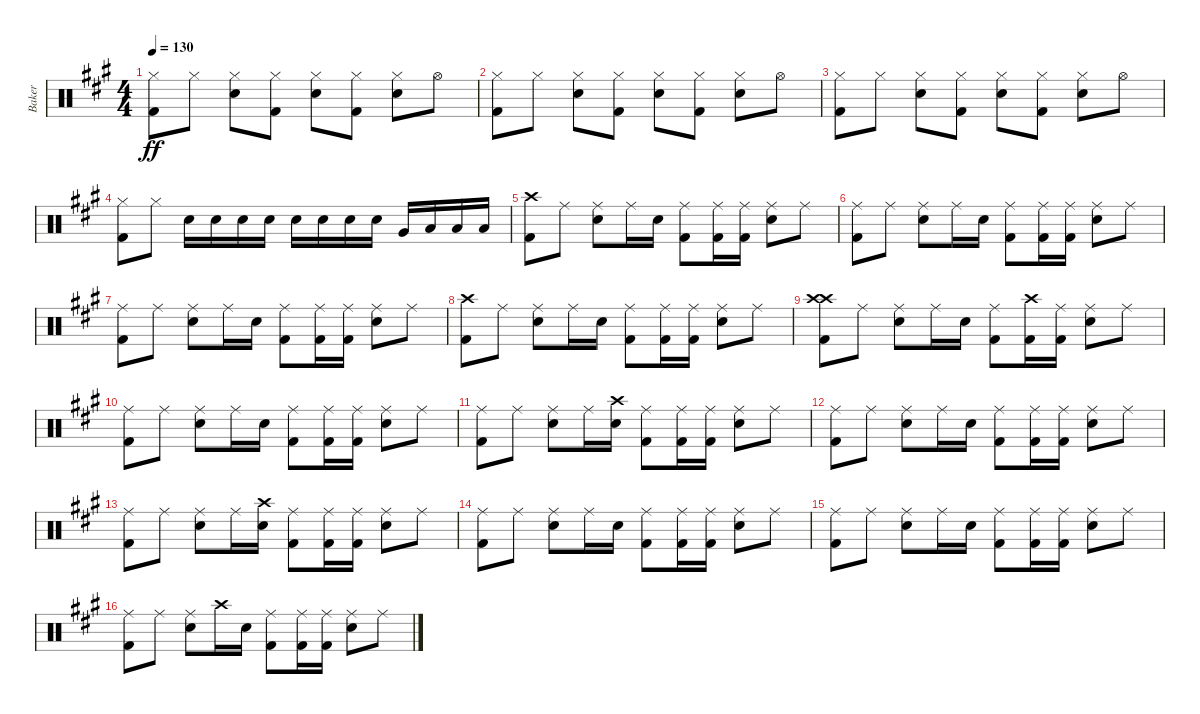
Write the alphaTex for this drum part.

\track ("Baker" "Baker") {instrument percussion}
\staff {score}
\articulation defaults
\ts (4 4)
\tempo 130
\clef neutral
\ks a
("Hi-Hat (closed)" "Kick (hit) 2").8{dy ff} "Hi-Hat (closed)".8 ("Hi-Hat (closed)" "Snare (hit) 2").8 ("Hi-Hat (closed)" "Kick (hit) 2").8 ("Hi-Hat (closed)" "Snare (hit) 2").8 ("Hi-Hat (closed)" "Kick (hit) 2").8 ("Hi-Hat (closed)" "Snare (hit) 2").8 "Hi-Hat (open)".8 |
("Hi-Hat (closed)" "Kick (hit) 2").8 "Hi-Hat (closed)".8 ("Hi-Hat (closed)" "Snare (hit) 2").8 ("Hi-Hat (closed)" "Kick (hit) 2").8 ("Hi-Hat (closed)" "Snare (hit) 2").8 ("Hi-Hat (closed)" "Kick (hit) 2").8 ("Hi-Hat (closed)" "Snare (hit) 2").8 "Hi-Hat (open)".8 |
("Hi-Hat (closed)" "Kick (hit) 2").8 "Hi-Hat (closed)".8 ("Hi-Hat (closed)" "Snare (hit) 2").8 ("Hi-Hat (closed)" "Kick (hit) 2").8 ("Hi-Hat (closed)" "Snare (hit) 2").8 ("Hi-Hat (closed)" "Kick (hit) 2").8 ("Hi-Hat (closed)" "Snare (hit) 2").8 "Hi-Hat (open)".8 |
("Hi-Hat (closed)" "Kick (hit) 2").8 "Hi-Hat (closed)".8 "Snare (hit) 2".16 "Snare (hit) 2".16 "Snare (hit) 2".16 "Snare (hit) 2".16 "Snare (hit) 2".16 "Snare (hit) 2".16 "Snare (hit) 2".16 "Snare (hit) 2".16 "Very Low Tom (hit)".16 "Low Floor Tom (hit)".16 "Low Floor Tom (hit)".16 "Low Floor Tom (hit)".16 |
("Crash high (hit)" "Kick (hit) 2").8 "Ride (middle)".8 ("Ride (middle)" "Snare (hit) 2").8 "Ride (middle)".16 "Snare (hit) 2".16 ("Ride (middle)" "Kick (hit) 2").8 ("Ride (middle)" "Kick (hit) 2").16 ("Ride (middle)" "Kick (hit) 2").16 ("Ride (middle)" "Snare (hit) 2").8 "Ride (middle)".8 |
("Ride (middle)" "Kick (hit) 2").8 "Ride (middle)".8 ("Ride (middle)" "Snare (hit) 2").8 "Ride (middle)".16 "Snare (hit) 2".16 ("Ride (middle)" "Kick (hit) 2").8 ("Ride (middle)" "Kick (hit) 2").16 ("Ride (middle)" "Kick (hit) 2").16 ("Ride (middle)" "Snare (hit) 2").8 "Ride (middle)".8 |
("Ride (middle)" "Kick (hit) 2").8 "Ride (middle)".8 ("Ride (middle)" "Snare (hit) 2").8 "Ride (middle)".16 "Snare (hit) 2".16 ("Ride (middle)" "Kick (hit) 2").8 ("Ride (middle)" "Kick (hit) 2").16 ("Ride (middle)" "Kick (hit) 2").16 ("Ride (middle)" "Snare (hit) 2").8 "Ride (middle)".8 |
("Crash high (hit)" "Kick (hit) 2").8 "Ride (middle)".8 ("Ride (middle)" "Snare (hit) 2").8 "Ride (middle)".16 "Snare (hit) 2".16 ("Ride (middle)" "Kick (hit) 2").8 ("Ride (middle)" "Kick (hit) 2").16 ("Ride (middle)" "Kick (hit) 2").16 ("Ride (middle)" "Snare (hit) 2").8 "Ride (middle)".8 |
("Crash high (hit)" "Crash high (hit)" "Kick (hit) 2").8 "Ride (middle)".8 ("Ride (middle)" "Snare (hit) 2").8 "Ride (middle)".16 "Snare (hit) 2".16 ("Ride (middle)" "Kick (hit) 2").8 ("Crash high (hit)" "Kick (hit) 2").16 ("Ride (middle)" "Kick (hit) 2").16 ("Ride (middle)" "Snare (hit) 2").8 "Ride (middle)".8 |
("Ride (middle)" "Kick (hit) 2").8 "Ride (middle)".8 ("Ride (middle)" "Snare (hit) 2").8 "Ride (middle)".16 "Snare (hit) 2".16 ("Ride (middle)" "Kick (hit) 2").8 ("Ride (middle)" "Kick (hit) 2").16 ("Ride (middle)" "Kick (hit) 2").16 ("Ride (middle)" "Snare (hit) 2").8 "Ride (middle)".8 |
("Ride (middle)" "Kick (hit) 2").8 "Ride (middle)".8 ("Ride (middle)" "Snare (hit) 2").8 "Ride (middle)".16 ("Crash high (hit)" "Snare (hit) 2").16 ("Ride (middle)" "Kick (hit) 2").8 ("Ride (middle)" "Kick (hit) 2").16 ("Ride (middle)" "Kick (hit) 2").16 ("Ride (middle)" "Snare (hit) 2").8 "Ride (middle)".8 |
("Ride (middle)" "Kick (hit) 2").8 "Ride (middle)".8 ("Ride (middle)" "Snare (hit) 2").8 "Ride (middle)".16 "Snare (hit) 2".16 ("Ride (middle)" "Kick (hit) 2").8 ("Ride (middle)" "Kick (hit) 2").16 ("Ride (middle)" "Kick (hit) 2").16 ("Ride (middle)" "Snare (hit) 2").8 "Ride (middle)".8 |
("Ride (middle)" "Kick (hit) 2").8 "Ride (middle)".8 ("Ride (middle)" "Snare (hit) 2").8 "Ride (middle)".16 ("Crash high (hit)" "Snare (hit) 2").16 ("Ride (middle)" "Kick (hit) 2").8 ("Ride (middle)" "Kick (hit) 2").16 ("Ride (middle)" "Kick (hit) 2").16 ("Ride (middle)" "Snare (hit) 2").8 "Ride (middle)".8 |
("Ride (middle)" "Kick (hit) 2").8 "Ride (middle)".8 ("Ride (middle)" "Snare (hit) 2").8 "Ride (middle)".16 "Snare (hit) 2".16 ("Ride (middle)" "Kick (hit) 2").8 ("Ride (middle)" "Kick (hit) 2").16 ("Ride (middle)" "Kick (hit) 2").16 ("Ride (middle)" "Snare (hit) 2").8 "Ride (middle)".8 |
("Ride (middle)" "Kick (hit) 2").8 "Ride (middle)".8 ("Ride (middle)" "Snare (hit) 2").8 "Ride (middle)".16 "Snare (hit) 2".16 ("Ride (middle)" "Kick (hit) 2").8 ("Ride (middle)" "Kick (hit) 2").16 ("Ride (middle)" "Kick (hit) 2").16 ("Ride (middle)" "Snare (hit) 2").8 "Ride (middle)".8 |
("Ride (middle)" "Kick (hit) 2").8 "Ride (middle)".8 ("Ride (middle)" "Snare (hit) 2").8 "Crash high (hit)".16 "Snare (hit) 2".16 ("Ride (middle)" "Kick (hit) 2").8 ("Ride (middle)" "Kick (hit) 2").16 ("Ride (middle)" "Kick (hit) 2").16 ("Ride (middle)" "Snare (hit) 2").8 "Ride (middle)".8
